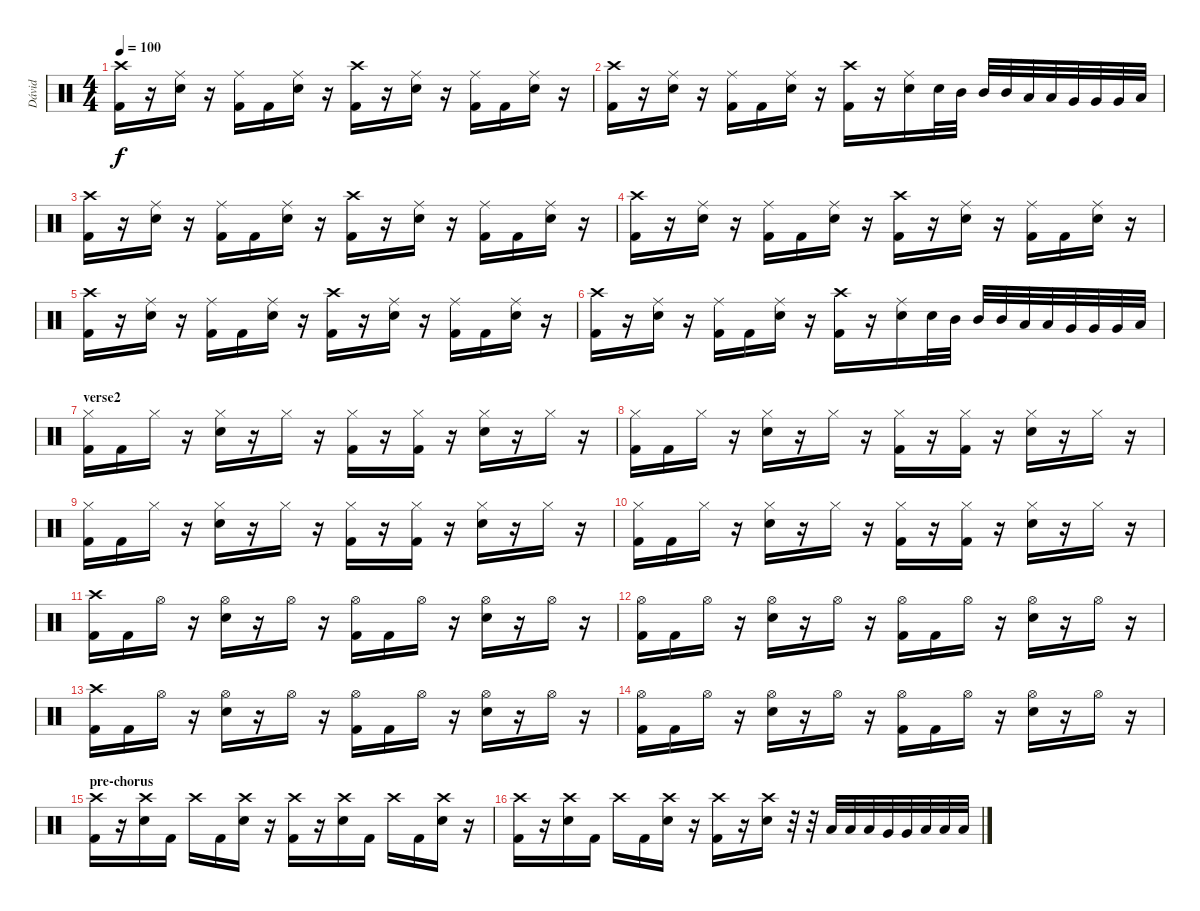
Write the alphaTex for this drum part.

\track ("Dávid" "Dávid") {instrument percussion}
\staff {score}
\articulation defaults
\ts (4 4)
\tempo 100
\clef neutral
\ks c
("Crash high (hit)" "Kick (hit) 2").16{dy f} r.16 ("Ride (middle)" "Snare (hit) 2").16 r.16 ("Ride (middle)" "Kick (hit) 2").16 "Kick (hit) 2".16 ("Ride (middle)" "Snare (hit) 2").16 r.16 ("Crash high (hit)" "Kick (hit) 2").16 r.16 ("Ride (middle)" "Snare (hit) 2").16 r.16 ("Ride (middle)" "Kick (hit) 2").16 "Kick (hit) 2".16 ("Ride (middle)" "Snare (hit) 2").16 r.16 |
("Crash high (hit)" "Kick (hit) 2").16 r.16 ("Ride (middle)" "Snare (hit) 2").16 r.16 ("Ride (middle)" "Kick (hit) 2").16 "Kick (hit) 2".16 ("Ride (middle)" "Snare (hit) 2").16 r.16 ("Crash high (hit)" "Kick (hit) 2").16 r.16 ("Ride (middle)" "Snare (hit) 2").16 "Snare (hit) 2".32 "Mid Tom (hit)".32 "Mid Tom (hit)".32 "Mid Tom (hit)".32 "Low Tom (hit)".32 "Low Tom (hit)".32 "Very Low Tom (hit)".32 "Very Low Tom (hit)".32 "Very Low Tom (hit)".32 "Low Floor Tom (hit)".32 |
("Crash high (hit)" "Kick (hit) 2").16 r.16 ("Ride (middle)" "Snare (hit) 2").16 r.16 ("Ride (middle)" "Kick (hit) 2").16 "Kick (hit) 2".16 ("Ride (middle)" "Snare (hit) 2").16 r.16 ("Crash high (hit)" "Kick (hit) 2").16 r.16 ("Ride (middle)" "Snare (hit) 2").16 r.16 ("Ride (middle)" "Kick (hit) 2").16 "Kick (hit) 2".16 ("Ride (middle)" "Snare (hit) 2").16 r.16 |
("Crash high (hit)" "Kick (hit) 2").16 r.16 ("Ride (middle)" "Snare (hit) 2").16 r.16 ("Ride (middle)" "Kick (hit) 2").16 "Kick (hit) 2".16 ("Ride (middle)" "Snare (hit) 2").16 r.16 ("Crash high (hit)" "Kick (hit) 2").16 r.16 ("Ride (middle)" "Snare (hit) 2").16 r.16 ("Ride (middle)" "Kick (hit) 2").16 "Kick (hit) 2".16 ("Ride (middle)" "Snare (hit) 2").16 r.16 |
("Crash high (hit)" "Kick (hit) 2").16 r.16 ("Ride (middle)" "Snare (hit) 2").16 r.16 ("Ride (middle)" "Kick (hit) 2").16 "Kick (hit) 2".16 ("Ride (middle)" "Snare (hit) 2").16 r.16 ("Crash high (hit)" "Kick (hit) 2").16 r.16 ("Ride (middle)" "Snare (hit) 2").16 r.16 ("Ride (middle)" "Kick (hit) 2").16 "Kick (hit) 2".16 ("Ride (middle)" "Snare (hit) 2").16 r.16 |
("Crash high (hit)" "Kick (hit) 2").16 r.16 ("Ride (middle)" "Snare (hit) 2").16 r.16 ("Ride (middle)" "Kick (hit) 2").16 "Kick (hit) 2".16 ("Ride (middle)" "Snare (hit) 2").16 r.16 ("Crash high (hit)" "Kick (hit) 2").16 r.16 ("Ride (middle)" "Snare (hit) 2").16 "Snare (hit) 2".32 "Mid Tom (hit)".32 "Mid Tom (hit)".32 "Mid Tom (hit)".32 "Low Tom (hit)".32 "Low Tom (hit)".32 "Very Low Tom (hit)".32 "Very Low Tom (hit)".32 "Very Low Tom (hit)".32 "Low Floor Tom (hit)".32 |
\section ("" "verse2")
("Hi-Hat (closed)" "Kick (hit) 2").16 "Kick (hit) 2".16 "Hi-Hat (closed)".16 r.16 ("Hi-Hat (closed)" "Snare (hit) 2").16 r.16 "Hi-Hat (closed)".16 r.16 ("Hi-Hat (closed)" "Kick (hit) 2").16 r.16 ("Hi-Hat (closed)" "Kick (hit) 2").16 r.16 ("Hi-Hat (closed)" "Snare (hit) 2").16 r.16 "Hi-Hat (closed)".16 r.16 |
("Hi-Hat (closed)" "Kick (hit) 2").16 "Kick (hit) 2".16 "Hi-Hat (closed)".16 r.16 ("Hi-Hat (closed)" "Snare (hit) 2").16 r.16 "Hi-Hat (closed)".16 r.16 ("Hi-Hat (closed)" "Kick (hit) 2").16 r.16 ("Hi-Hat (closed)" "Kick (hit) 2").16 r.16 ("Hi-Hat (closed)" "Snare (hit) 2").16 r.16 "Hi-Hat (closed)".16 r.16 |
("Hi-Hat (closed)" "Kick (hit) 2").16 "Kick (hit) 2".16 "Hi-Hat (closed)".16 r.16 ("Hi-Hat (closed)" "Snare (hit) 2").16 r.16 "Hi-Hat (closed)".16 r.16 ("Hi-Hat (closed)" "Kick (hit) 2").16 r.16 ("Hi-Hat (closed)" "Kick (hit) 2").16 r.16 ("Hi-Hat (closed)" "Snare (hit) 2").16 r.16 "Hi-Hat (closed)".16 r.16 |
("Hi-Hat (closed)" "Kick (hit) 2").16 "Kick (hit) 2".16 "Hi-Hat (closed)".16 r.16 ("Hi-Hat (closed)" "Snare (hit) 2").16 r.16 "Hi-Hat (closed)".16 r.16 ("Hi-Hat (closed)" "Kick (hit) 2").16 r.16 ("Hi-Hat (closed)" "Kick (hit) 2").16 r.16 ("Hi-Hat (closed)" "Snare (hit) 2").16 r.16 "Hi-Hat (closed)".16 r.16 |
("Crash high (hit)" "Kick (hit) 2").16 "Kick (hit) 2".16 "Hi-Hat (open)".16 r.16 ("Hi-Hat (open)" "Snare (hit) 2").16 r.16 "Hi-Hat (open)".16 r.16 ("Hi-Hat (open)" "Kick (hit) 2").16 "Kick (hit) 2".16 "Hi-Hat (open)".16 r.16 ("Hi-Hat (open)" "Snare (hit) 2").16 r.16 "Hi-Hat (open)".16 r.16 |
("Hi-Hat (open)" "Kick (hit) 2").16 "Kick (hit) 2".16 "Hi-Hat (open)".16 r.16 ("Hi-Hat (open)" "Snare (hit) 2").16 r.16 "Hi-Hat (open)".16 r.16 ("Hi-Hat (open)" "Kick (hit) 2").16 "Kick (hit) 2".16 "Hi-Hat (open)".16 r.16 ("Hi-Hat (open)" "Snare (hit) 2").16 r.16 "Hi-Hat (open)".16 r.16 |
("Crash high (hit)" "Kick (hit) 2").16 "Kick (hit) 2".16 "Hi-Hat (open)".16 r.16 ("Hi-Hat (open)" "Snare (hit) 2").16 r.16 "Hi-Hat (open)".16 r.16 ("Hi-Hat (open)" "Kick (hit) 2").16 "Kick (hit) 2".16 "Hi-Hat (open)".16 r.16 ("Hi-Hat (open)" "Snare (hit) 2").16 r.16 "Hi-Hat (open)".16 r.16 |
("Hi-Hat (open)" "Kick (hit) 2").16 "Kick (hit) 2".16 "Hi-Hat (open)".16 r.16 ("Hi-Hat (open)" "Snare (hit) 2").16 r.16 "Hi-Hat (open)".16 r.16 ("Hi-Hat (open)" "Kick (hit) 2").16 "Kick (hit) 2".16 "Hi-Hat (open)".16 r.16 ("Hi-Hat (open)" "Snare (hit) 2").16 r.16 "Hi-Hat (open)".16 r.16 |
\section ("" "pre-chorus")
("Crash high (hit)" "Kick (hit) 2").16 r.16 ("Crash high (hit)" "Snare (hit) 2").16 "Kick (hit) 2".16 "Crash high (hit)".16 "Kick (hit) 2".16 ("Crash high (hit)" "Snare (hit) 2").16 r.16 ("Crash high (hit)" "Kick (hit) 2").16 r.16 ("Crash high (hit)" "Snare (hit) 2").16 "Kick (hit) 2".16 "Crash high (hit)".16 "Kick (hit) 2".16 ("Crash high (hit)" "Snare (hit) 2").16 r.16 |
("Crash high (hit)" "Kick (hit) 2").16 r.16 ("Crash high (hit)" "Snare (hit) 2").16 "Kick (hit) 2".16 "Crash high (hit)".16 "Kick (hit) 2".16 ("Crash high (hit)" "Snare (hit) 2").16 r.16 ("Crash high (hit)" "Kick (hit) 2").16 r.16 ("Crash high (hit)" "Snare (hit) 2").16 r.32 r.32 "Low Tom (hit)".32 "Low Tom (hit)".32 "Low Tom (hit)".32 "Very Low Tom (hit)".32 "Very Low Tom (hit)".32 "Low Floor Tom (hit)".32 "Low Floor Tom (hit)".32 "Low Floor Tom (hit)".32
